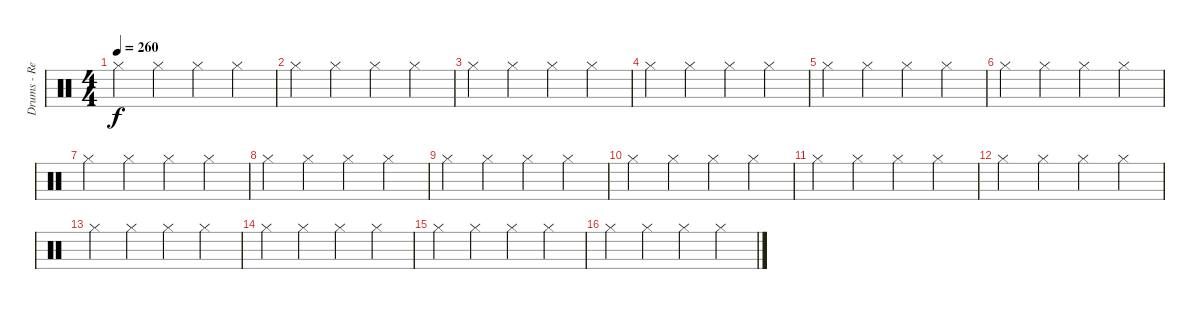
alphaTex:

\track ("Drums - Re'a Mochiach" "Drums - Re") {instrument percussion}
\staff {score}
\articulation defaults
\ts (4 4)
\tempo 260
\clef neutral
\ks c "Hi-Hat (closed)".4{dy f} "Hi-Hat (closed)".4 "Hi-Hat (closed)".4 "Hi-Hat (closed)".4
|
"Hi-Hat (closed)".4 "Hi-Hat (closed)".4 "Hi-Hat (closed)".4 "Hi-Hat (closed)".4 |
"Hi-Hat (closed)".4 "Hi-Hat (closed)".4 "Hi-Hat (closed)".4 "Hi-Hat (closed)".4 |
"Hi-Hat (closed)".4 "Hi-Hat (closed)".4 "Hi-Hat (closed)".4 "Hi-Hat (closed)".4 |
"Hi-Hat (closed)".4 "Hi-Hat (closed)".4 "Hi-Hat (closed)".4 "Hi-Hat (closed)".4 |
"Hi-Hat (closed)".4 "Hi-Hat (closed)".4 "Hi-Hat (closed)".4 "Hi-Hat (closed)".4 |
"Hi-Hat (closed)".4 "Hi-Hat (closed)".4 "Hi-Hat (closed)".4 "Hi-Hat (closed)".4 |
"Hi-Hat (closed)".4 "Hi-Hat (closed)".4 "Hi-Hat (closed)".4 "Hi-Hat (closed)".4 |
"Hi-Hat (closed)".4 "Hi-Hat (closed)".4 "Hi-Hat (closed)".4 "Hi-Hat (closed)".4 |
"Hi-Hat (closed)".4 "Hi-Hat (closed)".4 "Hi-Hat (closed)".4 "Hi-Hat (closed)".4 |
"Hi-Hat (closed)".4 "Hi-Hat (closed)".4 "Hi-Hat (closed)".4 "Hi-Hat (closed)".4 |
"Hi-Hat (closed)".4 "Hi-Hat (closed)".4 "Hi-Hat (closed)".4 "Hi-Hat (closed)".4 |
"Hi-Hat (closed)".4 "Hi-Hat (closed)".4 "Hi-Hat (closed)".4 "Hi-Hat (closed)".4 |
"Hi-Hat (closed)".4 "Hi-Hat (closed)".4 "Hi-Hat (closed)".4 "Hi-Hat (closed)".4 |
"Hi-Hat (closed)".4 "Hi-Hat (closed)".4 "Hi-Hat (closed)".4 "Hi-Hat (closed)".4 |
"Hi-Hat (closed)".4 "Hi-Hat (closed)".4 "Hi-Hat (closed)".4 "Hi-Hat (closed)".4
